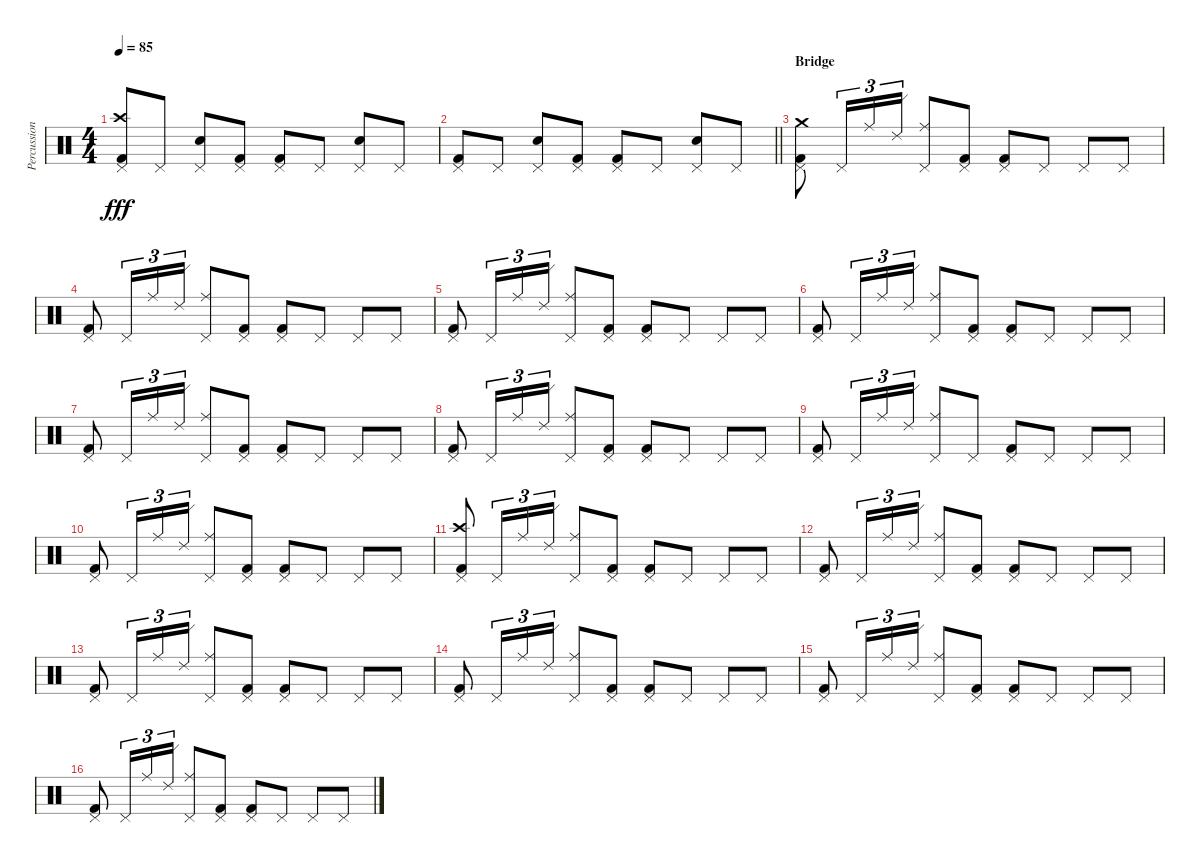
\track ("Percussion" "Percussion") {instrument percussion}
\staff {score}
\articulation defaults
\ts (4 4)
\tempo 85
\clef neutral
\ks c
("Kick (hit) 2" "Crash high (hit)" "Pedal Hi-Hat (hit)").8{dy fff} "Pedal Hi-Hat (hit)".8 ("Pedal Hi-Hat (hit)" "Snare (hit) 2").8 ("Kick (hit) 2" "Pedal Hi-Hat (hit)").8 ("Kick (hit) 2" "Pedal Hi-Hat (hit)").8 "Pedal Hi-Hat (hit)".8 ("Pedal Hi-Hat (hit)" "Snare (hit) 2").8 "Pedal Hi-Hat (hit)".8 |
\barLineRight lightlight
("Kick (hit) 2" "Pedal Hi-Hat (hit)").8 "Pedal Hi-Hat (hit)".8 ("Pedal Hi-Hat (hit)" "Snare (hit) 2").8 ("Kick (hit) 2" "Pedal Hi-Hat (hit)").8 ("Kick (hit) 2" "Pedal Hi-Hat (hit)").8 "Pedal Hi-Hat (hit)".8 ("Pedal Hi-Hat (hit)" "Snare (hit) 2").8 "Pedal Hi-Hat (hit)".8 |
\section ("" "Bridge")
("Kick (hit) 2" "Crash medium (hit)" "Pedal Hi-Hat (hit)").8 "Pedal Hi-Hat (hit)".16{tu (3 2)} "Ride (middle)".16{tu (3 2)} "Ride (edge) 2".16{tu (3 2)} ("Ride (middle)" "Pedal Hi-Hat (hit)").8 ("Kick (hit) 2" "Pedal Hi-Hat (hit)").8 ("Kick (hit) 2" "Pedal Hi-Hat (hit)").8 "Pedal Hi-Hat (hit)".8 "Pedal Hi-Hat (hit)".8 "Pedal Hi-Hat (hit)".8 |
("Kick (hit) 2" "Pedal Hi-Hat (hit)").8 "Pedal Hi-Hat (hit)".16{tu (3 2)} "Ride (middle)".16{tu (3 2)} "Ride (edge) 2".16{tu (3 2)} ("Ride (middle)" "Pedal Hi-Hat (hit)").8 ("Kick (hit) 2" "Pedal Hi-Hat (hit)").8 ("Kick (hit) 2" "Pedal Hi-Hat (hit)").8 "Pedal Hi-Hat (hit)".8 "Pedal Hi-Hat (hit)".8 "Pedal Hi-Hat (hit)".8 |
("Kick (hit) 2" "Pedal Hi-Hat (hit)").8 "Pedal Hi-Hat (hit)".16{tu (3 2)} "Ride (middle)".16{tu (3 2)} "Ride (edge) 2".16{tu (3 2)} ("Ride (middle)" "Pedal Hi-Hat (hit)").8 ("Kick (hit) 2" "Pedal Hi-Hat (hit)").8 ("Kick (hit) 2" "Pedal Hi-Hat (hit)").8 "Pedal Hi-Hat (hit)".8 "Pedal Hi-Hat (hit)".8 "Pedal Hi-Hat (hit)".8 |
("Kick (hit) 2" "Pedal Hi-Hat (hit)").8 "Pedal Hi-Hat (hit)".16{tu (3 2)} "Ride (middle)".16{tu (3 2)} "Ride (edge) 2".16{tu (3 2)} ("Ride (middle)" "Pedal Hi-Hat (hit)").8 ("Kick (hit) 2" "Pedal Hi-Hat (hit)").8 ("Kick (hit) 2" "Pedal Hi-Hat (hit)").8 "Pedal Hi-Hat (hit)".8 "Pedal Hi-Hat (hit)".8 "Pedal Hi-Hat (hit)".8 |
("Kick (hit) 2" "Pedal Hi-Hat (hit)").8 "Pedal Hi-Hat (hit)".16{tu (3 2)} "Ride (middle)".16{tu (3 2)} "Ride (edge) 2".16{tu (3 2)} ("Ride (middle)" "Pedal Hi-Hat (hit)").8 ("Kick (hit) 2" "Pedal Hi-Hat (hit)").8 ("Kick (hit) 2" "Pedal Hi-Hat (hit)").8 "Pedal Hi-Hat (hit)".8 "Pedal Hi-Hat (hit)".8 "Pedal Hi-Hat (hit)".8 |
("Kick (hit) 2" "Pedal Hi-Hat (hit)").8 "Pedal Hi-Hat (hit)".16{tu (3 2)} "Ride (middle)".16{tu (3 2)} "Ride (edge) 2".16{tu (3 2)} ("Ride (middle)" "Pedal Hi-Hat (hit)").8 ("Kick (hit) 2" "Pedal Hi-Hat (hit)").8 ("Kick (hit) 2" "Pedal Hi-Hat (hit)").8 "Pedal Hi-Hat (hit)".8 "Pedal Hi-Hat (hit)".8 "Pedal Hi-Hat (hit)".8 |
("Kick (hit) 2" "Pedal Hi-Hat (hit)").8 "Pedal Hi-Hat (hit)".16{tu (3 2)} "Ride (middle)".16{tu (3 2)} "Ride (edge) 2".16{tu (3 2)} ("Ride (middle)" "Pedal Hi-Hat (hit)").8 "Pedal Hi-Hat (hit)".8 ("Kick (hit) 2" "Pedal Hi-Hat (hit)").8 "Pedal Hi-Hat (hit)".8 "Pedal Hi-Hat (hit)".8 "Pedal Hi-Hat (hit)".8 |
("Kick (hit) 2" "Pedal Hi-Hat (hit)").8 "Pedal Hi-Hat (hit)".16{tu (3 2)} "Ride (middle)".16{tu (3 2)} "Ride (edge) 2".16{tu (3 2)} ("Ride (middle)" "Pedal Hi-Hat (hit)").8 ("Kick (hit) 2" "Pedal Hi-Hat (hit)").8 ("Kick (hit) 2" "Pedal Hi-Hat (hit)").8 "Pedal Hi-Hat (hit)".8 "Pedal Hi-Hat (hit)".8 "Pedal Hi-Hat (hit)".8 |
("Kick (hit) 2" "Crash high (hit)" "Pedal Hi-Hat (hit)").8 "Pedal Hi-Hat (hit)".16{tu (3 2)} "Ride (middle)".16{tu (3 2)} "Ride (edge) 2".16{tu (3 2)} ("Ride (middle)" "Pedal Hi-Hat (hit)").8 ("Kick (hit) 2" "Pedal Hi-Hat (hit)").8 ("Kick (hit) 2" "Pedal Hi-Hat (hit)").8 "Pedal Hi-Hat (hit)".8 "Pedal Hi-Hat (hit)".8 "Pedal Hi-Hat (hit)".8 |
("Kick (hit) 2" "Pedal Hi-Hat (hit)").8 "Pedal Hi-Hat (hit)".16{tu (3 2)} "Ride (middle)".16{tu (3 2)} "Ride (edge) 2".16{tu (3 2)} ("Ride (middle)" "Pedal Hi-Hat (hit)").8 ("Kick (hit) 2" "Pedal Hi-Hat (hit)").8 ("Kick (hit) 2" "Pedal Hi-Hat (hit)").8 "Pedal Hi-Hat (hit)".8 "Pedal Hi-Hat (hit)".8 "Pedal Hi-Hat (hit)".8 |
("Kick (hit) 2" "Pedal Hi-Hat (hit)").8 "Pedal Hi-Hat (hit)".16{tu (3 2)} "Ride (middle)".16{tu (3 2)} "Ride (edge) 2".16{tu (3 2)} ("Ride (middle)" "Pedal Hi-Hat (hit)").8 ("Kick (hit) 2" "Pedal Hi-Hat (hit)").8 ("Kick (hit) 2" "Pedal Hi-Hat (hit)").8 "Pedal Hi-Hat (hit)".8 "Pedal Hi-Hat (hit)".8 "Pedal Hi-Hat (hit)".8 |
("Kick (hit) 2" "Pedal Hi-Hat (hit)").8 "Pedal Hi-Hat (hit)".16{tu (3 2)} "Ride (middle)".16{tu (3 2)} "Ride (edge) 2".16{tu (3 2)} ("Ride (middle)" "Pedal Hi-Hat (hit)").8 ("Kick (hit) 2" "Pedal Hi-Hat (hit)").8 ("Kick (hit) 2" "Pedal Hi-Hat (hit)").8 "Pedal Hi-Hat (hit)".8 "Pedal Hi-Hat (hit)".8 "Pedal Hi-Hat (hit)".8 |
("Kick (hit) 2" "Pedal Hi-Hat (hit)").8 "Pedal Hi-Hat (hit)".16{tu (3 2)} "Ride (middle)".16{tu (3 2)} "Ride (edge) 2".16{tu (3 2)} ("Ride (middle)" "Pedal Hi-Hat (hit)").8 ("Kick (hit) 2" "Pedal Hi-Hat (hit)").8 ("Kick (hit) 2" "Pedal Hi-Hat (hit)").8 "Pedal Hi-Hat (hit)".8 "Pedal Hi-Hat (hit)".8 "Pedal Hi-Hat (hit)".8 |
("Kick (hit) 2" "Pedal Hi-Hat (hit)").8 "Pedal Hi-Hat (hit)".16{tu (3 2)} "Ride (middle)".16{tu (3 2)} "Ride (edge) 2".16{tu (3 2)} ("Ride (middle)" "Pedal Hi-Hat (hit)").8 ("Kick (hit) 2" "Pedal Hi-Hat (hit)").8 ("Kick (hit) 2" "Pedal Hi-Hat (hit)").8 "Pedal Hi-Hat (hit)".8 "Pedal Hi-Hat (hit)".8 "Pedal Hi-Hat (hit)".8
